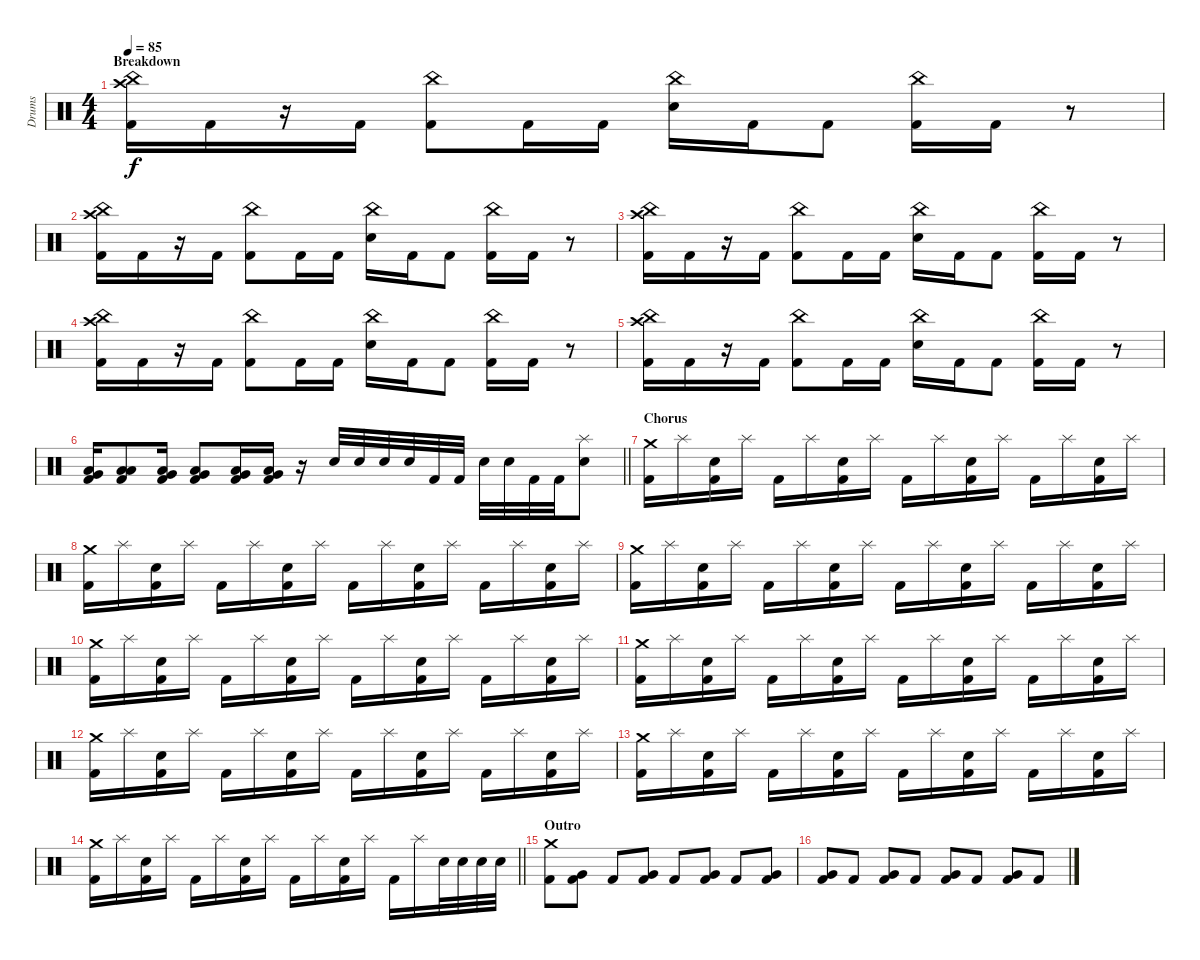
\track ("Drums" "Drums") {instrument percussion}
\staff {score}
\articulation defaults
\ts (4 4)
\section ("" "Breakdown")
\tempo 85
\clef neutral
\ks c
("Crash high (hit)" "China (hit)" "Kick (hit) 2").16{dy f} "Kick (hit) 2".16 r.16 "Kick (hit) 2".16 ("China (hit)" "Kick (hit) 2").8 "Kick (hit) 2".16 "Kick (hit) 2".16 ("China (hit)" "Electric Snare (hit)").16 "Kick (hit) 2".16 "Kick (hit) 2".8 ("China (hit)" "Kick (hit) 2").16 "Kick (hit) 2".16 r.8 |
("Crash high (hit)" "China (hit)" "Kick (hit) 2").16 "Kick (hit) 2".16 r.16 "Kick (hit) 2".16 ("China (hit)" "Kick (hit) 2").8 "Kick (hit) 2".16 "Kick (hit) 2".16 ("China (hit)" "Electric Snare (hit)").16 "Kick (hit) 2".16 "Kick (hit) 2".8 ("China (hit)" "Kick (hit) 2").16 "Kick (hit) 2".16 r.8 |
("Crash high (hit)" "China (hit)" "Kick (hit) 2").16 "Kick (hit) 2".16 r.16 "Kick (hit) 2".16 ("China (hit)" "Kick (hit) 2").8 "Kick (hit) 2".16 "Kick (hit) 2".16 ("China (hit)" "Electric Snare (hit)").16 "Kick (hit) 2".16 "Kick (hit) 2".8 ("China (hit)" "Kick (hit) 2").16 "Kick (hit) 2".16 r.8 |
("Crash high (hit)" "China (hit)" "Kick (hit) 2").16 "Kick (hit) 2".16 r.16 "Kick (hit) 2".16 ("China (hit)" "Kick (hit) 2").8 "Kick (hit) 2".16 "Kick (hit) 2".16 ("China (hit)" "Electric Snare (hit)").16 "Kick (hit) 2".16 "Kick (hit) 2".8 ("China (hit)" "Kick (hit) 2").16 "Kick (hit) 2".16 r.8 |
("Crash high (hit)" "China (hit)" "Kick (hit) 2").16 "Kick (hit) 2".16 r.16 "Kick (hit) 2".16 ("China (hit)" "Kick (hit) 2").8 "Kick (hit) 2".16 "Kick (hit) 2".16 ("China (hit)" "Electric Snare (hit)").16 "Kick (hit) 2".16 "Kick (hit) 2".8 ("China (hit)" "Kick (hit) 2").16 "Kick (hit) 2".16 r.8 |
\barLineRight lightlight
("Very Low Tom (hit)" "Low Floor Tom (hit)" "Kick (hit) 2").16 ("Low Floor Tom (hit)" "Low Floor Tom (hit)" "Kick (hit) 2").8 ("Very Low Tom (hit)" "Low Floor Tom (hit)" "Kick (hit) 2").16 ("Very Low Tom (hit)" "Low Floor Tom (hit)" "Kick (hit) 2").8 ("Very Low Tom (hit)" "Low Floor Tom (hit)" "Kick (hit) 2").16 ("Very Low Tom (hit)" "Low Floor Tom (hit)" "Kick (hit) 2").16 r.16 "Electric Snare (hit)".32 "Electric Snare (hit)".32 "Electric Snare (hit)".32 "Electric Snare (hit)".32 "Kick (hit) 2".32 "Kick (hit) 2".32 "Electric Snare (hit)".32 "Electric Snare (hit)".32 "Kick (hit) 2".32 "Kick (hit) 2".32 ("Splash (hit)" "Electric Snare (hit)").8 |
\section ("" "Chorus")
("Crash medium (hit)" "Kick (hit) 2").16 "Splash (hit)".16 ("Electric Snare (hit)" "Kick (hit) 2").16 "Splash (hit)".16 "Kick (hit) 2".16 "Splash (hit)".16 ("Electric Snare (hit)" "Kick (hit) 2").16 "Splash (hit)".16 "Kick (hit) 2".16 "Splash (hit)".16 ("Electric Snare (hit)" "Kick (hit) 2").16 "Splash (hit)".16 "Kick (hit) 2".16 "Splash (hit)".16 ("Electric Snare (hit)" "Kick (hit) 2").16 "Splash (hit)".16 |
("Crash medium (hit)" "Kick (hit) 2").16 "Splash (hit)".16 ("Electric Snare (hit)" "Kick (hit) 2").16 "Splash (hit)".16 "Kick (hit) 2".16 "Splash (hit)".16 ("Electric Snare (hit)" "Kick (hit) 2").16 "Splash (hit)".16 "Kick (hit) 2".16 "Splash (hit)".16 ("Electric Snare (hit)" "Kick (hit) 2").16 "Splash (hit)".16 "Kick (hit) 2".16 "Splash (hit)".16 ("Electric Snare (hit)" "Kick (hit) 2").16 "Splash (hit)".16 |
("Crash medium (hit)" "Kick (hit) 2").16 "Splash (hit)".16 ("Electric Snare (hit)" "Kick (hit) 2").16 "Splash (hit)".16 "Kick (hit) 2".16 "Splash (hit)".16 ("Electric Snare (hit)" "Kick (hit) 2").16 "Splash (hit)".16 "Kick (hit) 2".16 "Splash (hit)".16 ("Electric Snare (hit)" "Kick (hit) 2").16 "Splash (hit)".16 "Kick (hit) 2".16 "Splash (hit)".16 ("Electric Snare (hit)" "Kick (hit) 2").16 "Splash (hit)".16 |
("Crash medium (hit)" "Kick (hit) 2").16 "Splash (hit)".16 ("Electric Snare (hit)" "Kick (hit) 2").16 "Splash (hit)".16 "Kick (hit) 2".16 "Splash (hit)".16 ("Electric Snare (hit)" "Kick (hit) 2").16 "Splash (hit)".16 "Kick (hit) 2".16 "Splash (hit)".16 ("Electric Snare (hit)" "Kick (hit) 2").16 "Splash (hit)".16 "Kick (hit) 2".16 "Splash (hit)".16 ("Electric Snare (hit)" "Kick (hit) 2").16 "Splash (hit)".16 |
("Crash medium (hit)" "Kick (hit) 2").16 "Splash (hit)".16 ("Electric Snare (hit)" "Kick (hit) 2").16 "Splash (hit)".16 "Kick (hit) 2".16 "Splash (hit)".16 ("Electric Snare (hit)" "Kick (hit) 2").16 "Splash (hit)".16 "Kick (hit) 2".16 "Splash (hit)".16 ("Electric Snare (hit)" "Kick (hit) 2").16 "Splash (hit)".16 "Kick (hit) 2".16 "Splash (hit)".16 ("Electric Snare (hit)" "Kick (hit) 2").16 "Splash (hit)".16 |
("Crash medium (hit)" "Kick (hit) 2").16 "Splash (hit)".16 ("Electric Snare (hit)" "Kick (hit) 2").16 "Splash (hit)".16 "Kick (hit) 2".16 "Splash (hit)".16 ("Electric Snare (hit)" "Kick (hit) 2").16 "Splash (hit)".16 "Kick (hit) 2".16 "Splash (hit)".16 ("Electric Snare (hit)" "Kick (hit) 2").16 "Splash (hit)".16 "Kick (hit) 2".16 "Splash (hit)".16 ("Electric Snare (hit)" "Kick (hit) 2").16 "Splash (hit)".16 |
("Crash medium (hit)" "Kick (hit) 2").16 "Splash (hit)".16 ("Electric Snare (hit)" "Kick (hit) 2").16 "Splash (hit)".16 "Kick (hit) 2".16 "Splash (hit)".16 ("Electric Snare (hit)" "Kick (hit) 2").16 "Splash (hit)".16 "Kick (hit) 2".16 "Splash (hit)".16 ("Electric Snare (hit)" "Kick (hit) 2").16 "Splash (hit)".16 "Kick (hit) 2".16 "Splash (hit)".16 ("Electric Snare (hit)" "Kick (hit) 2").16 "Splash (hit)".16 |
\barLineRight lightlight
("Crash medium (hit)" "Kick (hit) 2").16 "Splash (hit)".16 ("Electric Snare (hit)" "Kick (hit) 2").16 "Splash (hit)".16 "Kick (hit) 2".16 "Splash (hit)".16 ("Electric Snare (hit)" "Kick (hit) 2").16 "Splash (hit)".16 "Kick (hit) 2".16 "Splash (hit)".16 ("Electric Snare (hit)" "Kick (hit) 2").16 "Splash (hit)".16 "Kick (hit) 2".16 "Splash (hit)".16 "Electric Snare (hit)".32 "Electric Snare (hit)".32 "Electric Snare (hit)".32 "Electric Snare (hit)".32 |
\section ("" "Outro")
("Crash medium (hit)" "Kick (hit) 2").8 ("Very Low Tom (hit)" "Kick (hit) 2").8 "Kick (hit) 2".8 ("Very Low Tom (hit)" "Kick (hit) 2").8 "Kick (hit) 2".8 ("Very Low Tom (hit)" "Kick (hit) 2").8 "Kick (hit) 2".8 ("Very Low Tom (hit)" "Kick (hit) 2").8 |
("Very Low Tom (hit)" "Kick (hit) 2").8 "Kick (hit) 2".8 ("Very Low Tom (hit)" "Kick (hit) 2").8 "Kick (hit) 2".8 ("Very Low Tom (hit)" "Kick (hit) 2").8 "Kick (hit) 2".8 ("Very Low Tom (hit)" "Kick (hit) 2").8 "Kick (hit) 2".8
